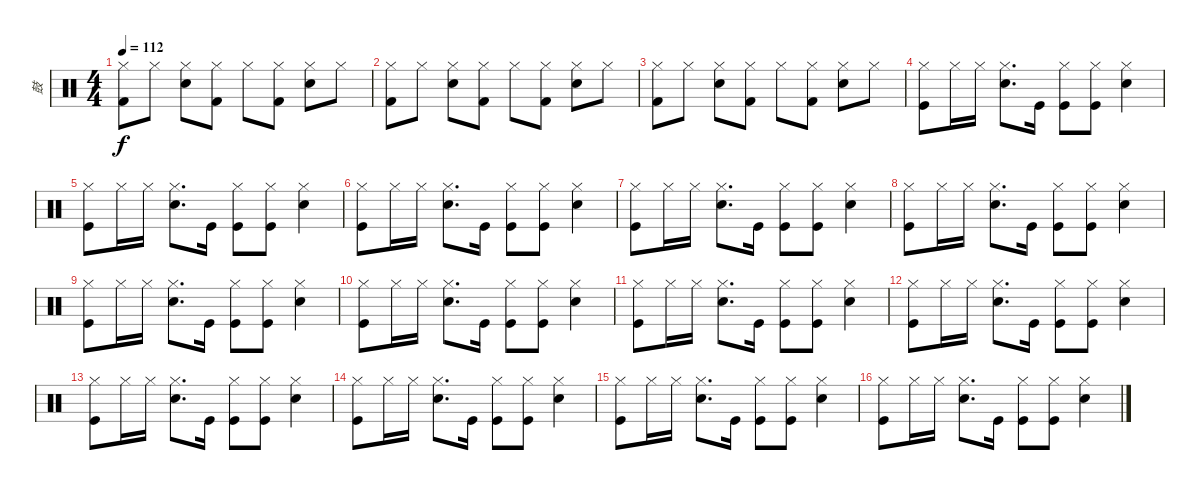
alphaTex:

\track ("鼓" "鼓") {instrument percussion}
\staff {score}
\articulation defaults
\ts (4 4)
\tempo 112
\clef neutral
\ks c
("Hi-Hat (closed)" "Kick (hit) 2").8{dy f} "Hi-Hat (closed)".8 ("Hi-Hat (closed)" "Snare (hit) 2").8 ("Hi-Hat (closed)" "Kick (hit) 2").8 "Hi-Hat (closed)".8 ("Hi-Hat (closed)" "Kick (hit) 2").8 ("Hi-Hat (closed)" "Snare (hit) 2").8 "Hi-Hat (closed)".8 |
("Hi-Hat (closed)" "Kick (hit) 2").8 "Hi-Hat (closed)".8 ("Hi-Hat (closed)" "Snare (hit) 2").8 ("Hi-Hat (closed)" "Kick (hit) 2").8 "Hi-Hat (closed)".8 ("Hi-Hat (closed)" "Kick (hit) 2").8 ("Hi-Hat (closed)" "Snare (hit) 2").8 "Hi-Hat (closed)".8 |
("Hi-Hat (closed)" "Kick (hit) 2").8 "Hi-Hat (closed)".8 ("Hi-Hat (closed)" "Snare (hit) 2").8 ("Hi-Hat (closed)" "Kick (hit) 2").8 "Hi-Hat (closed)".8 ("Hi-Hat (closed)" "Kick (hit) 2").8 ("Hi-Hat (closed)" "Snare (hit) 2").8 "Hi-Hat (closed)".8 |
("Hi-Hat (closed)" "Kick (hit)").8 "Hi-Hat (closed)".16 "Hi-Hat (closed)".16 ("Hi-Hat (closed)" "Electric Snare (hit)").8{d} "Kick (hit)".16 ("Hi-Hat (closed)" "Kick (hit)").8 ("Hi-Hat (closed)" "Kick (hit)").8 ("Hi-Hat (closed)" "Electric Snare (hit)").4 |
("Hi-Hat (closed)" "Kick (hit)").8 "Hi-Hat (closed)".16 "Hi-Hat (closed)".16 ("Hi-Hat (closed)" "Electric Snare (hit)").8{d} "Kick (hit)".16 ("Hi-Hat (closed)" "Kick (hit)").8 ("Hi-Hat (closed)" "Kick (hit)").8 ("Hi-Hat (closed)" "Electric Snare (hit)").4 |
("Hi-Hat (closed)" "Kick (hit)").8 "Hi-Hat (closed)".16 "Hi-Hat (closed)".16 ("Hi-Hat (closed)" "Electric Snare (hit)").8{d} "Kick (hit)".16 ("Hi-Hat (closed)" "Kick (hit)").8 ("Hi-Hat (closed)" "Kick (hit)").8 ("Hi-Hat (closed)" "Electric Snare (hit)").4 |
("Hi-Hat (closed)" "Kick (hit)").8 "Hi-Hat (closed)".16 "Hi-Hat (closed)".16 ("Hi-Hat (closed)" "Electric Snare (hit)").8{d} "Kick (hit)".16 ("Hi-Hat (closed)" "Kick (hit)").8 ("Hi-Hat (closed)" "Kick (hit)").8 ("Hi-Hat (closed)" "Electric Snare (hit)").4 |
("Hi-Hat (closed)" "Kick (hit)").8 "Hi-Hat (closed)".16 "Hi-Hat (closed)".16 ("Hi-Hat (closed)" "Electric Snare (hit)").8{d} "Kick (hit)".16 ("Hi-Hat (closed)" "Kick (hit)").8 ("Hi-Hat (closed)" "Kick (hit)").8 ("Hi-Hat (closed)" "Electric Snare (hit)").4 |
("Hi-Hat (closed)" "Kick (hit)").8 "Hi-Hat (closed)".16 "Hi-Hat (closed)".16 ("Hi-Hat (closed)" "Electric Snare (hit)").8{d} "Kick (hit)".16 ("Hi-Hat (closed)" "Kick (hit)").8 ("Hi-Hat (closed)" "Kick (hit)").8 ("Hi-Hat (closed)" "Electric Snare (hit)").4 |
("Hi-Hat (closed)" "Kick (hit)").8 "Hi-Hat (closed)".16 "Hi-Hat (closed)".16 ("Hi-Hat (closed)" "Electric Snare (hit)").8{d} "Kick (hit)".16 ("Hi-Hat (closed)" "Kick (hit)").8 ("Hi-Hat (closed)" "Kick (hit)").8 ("Hi-Hat (closed)" "Electric Snare (hit)").4 |
("Hi-Hat (closed)" "Kick (hit)").8 "Hi-Hat (closed)".16 "Hi-Hat (closed)".16 ("Hi-Hat (closed)" "Electric Snare (hit)").8{d} "Kick (hit)".16 ("Hi-Hat (closed)" "Kick (hit)").8 ("Hi-Hat (closed)" "Kick (hit)").8 ("Hi-Hat (closed)" "Electric Snare (hit)").4 |
("Hi-Hat (closed)" "Kick (hit)").8 "Hi-Hat (closed)".16 "Hi-Hat (closed)".16 ("Hi-Hat (closed)" "Electric Snare (hit)").8{d} "Kick (hit)".16 ("Hi-Hat (closed)" "Kick (hit)").8 ("Hi-Hat (closed)" "Kick (hit)").8 ("Hi-Hat (closed)" "Electric Snare (hit)").4 |
("Hi-Hat (closed)" "Kick (hit)").8 "Hi-Hat (closed)".16 "Hi-Hat (closed)".16 ("Hi-Hat (closed)" "Electric Snare (hit)").8{d} "Kick (hit)".16 ("Hi-Hat (closed)" "Kick (hit)").8 ("Hi-Hat (closed)" "Kick (hit)").8 ("Hi-Hat (closed)" "Electric Snare (hit)").4 |
("Hi-Hat (closed)" "Kick (hit)").8 "Hi-Hat (closed)".16 "Hi-Hat (closed)".16 ("Hi-Hat (closed)" "Electric Snare (hit)").8{d} "Kick (hit)".16 ("Hi-Hat (closed)" "Kick (hit)").8 ("Hi-Hat (closed)" "Kick (hit)").8 ("Hi-Hat (closed)" "Electric Snare (hit)").4 |
("Hi-Hat (closed)" "Kick (hit)").8 "Hi-Hat (closed)".16 "Hi-Hat (closed)".16 ("Hi-Hat (closed)" "Electric Snare (hit)").8{d} "Kick (hit)".16 ("Hi-Hat (closed)" "Kick (hit)").8 ("Hi-Hat (closed)" "Kick (hit)").8 ("Hi-Hat (closed)" "Electric Snare (hit)").4 |
("Hi-Hat (closed)" "Kick (hit)").8 "Hi-Hat (closed)".16 "Hi-Hat (closed)".16 ("Hi-Hat (closed)" "Electric Snare (hit)").8{d} "Kick (hit)".16 ("Hi-Hat (closed)" "Kick (hit)").8 ("Hi-Hat (closed)" "Kick (hit)").8 ("Hi-Hat (closed)" "Electric Snare (hit)").4
